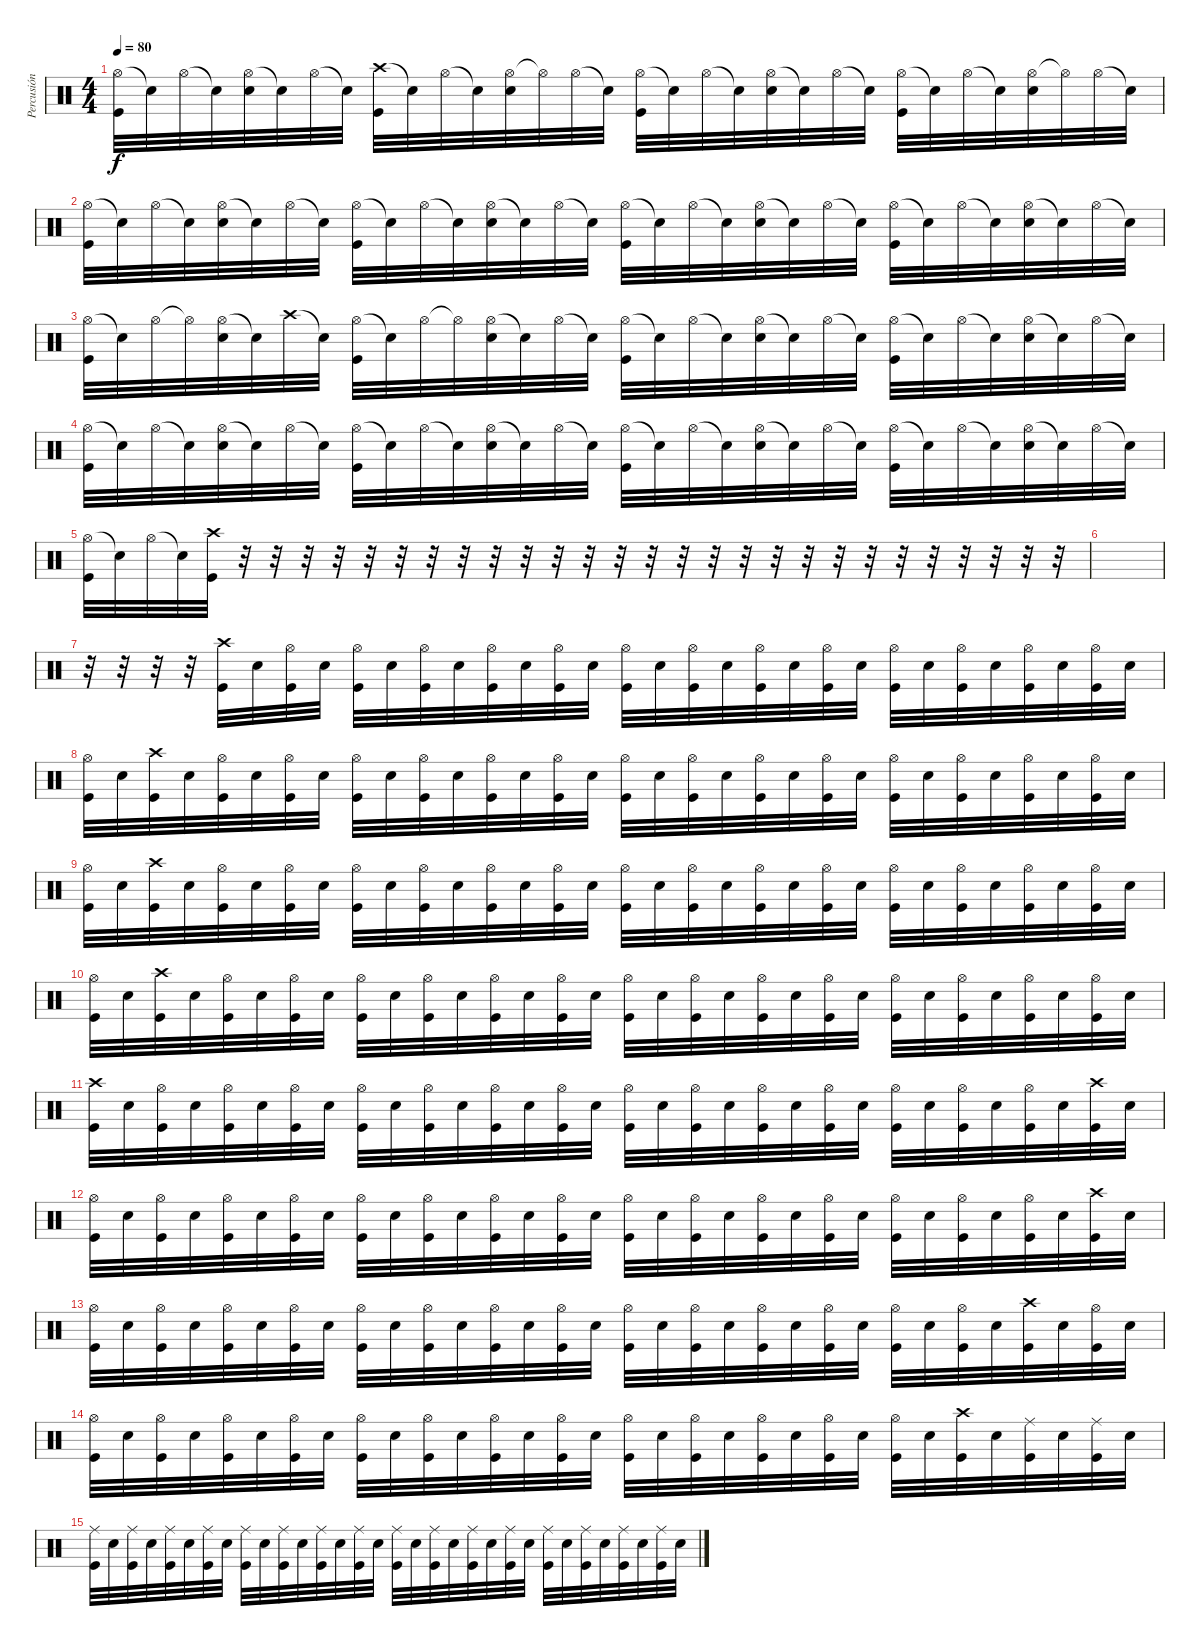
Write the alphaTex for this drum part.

\track ("Percusión" "Percusión") {instrument percussion}
\staff {score}
\articulation defaults
\ts (4 4)
\tempo 80
\clef neutral
\ks c
("Hi-Hat (open)" "Kick (hit)").32{dy f} "Snare (hit)"{t}.32 "Hi-Hat (open)".32 "Snare (hit)"{t}.32 ("Hi-Hat (open)" "Electric Snare (hit)").32 "Snare (hit)"{t}.32 "Hi-Hat (open)".32 "Snare (hit)"{t}.32 ("Crash high (hit)" "Kick (hit)").32 "Snare (hit)"{t}.32 "Hi-Hat (open)".32 "Snare (hit)"{t}.32 ("Hi-Hat (open)" "Electric Snare (hit)").32 "Hi-Hat (open)"{t}.32 "Hi-Hat (open)".32 "Snare (hit)"{t}.32 ("Hi-Hat (open)" "Kick (hit)").32 "Snare (hit)"{t}.32 "Hi-Hat (open)".32 "Snare (hit)"{t}.32 ("Hi-Hat (open)" "Electric Snare (hit)").32 "Snare (hit)"{t}.32 "Hi-Hat (open)".32 "Snare (hit)"{t}.32 ("Hi-Hat (open)" "Kick (hit)").32 "Snare (hit)"{t}.32 "Hi-Hat (open)".32 "Snare (hit)"{t}.32 ("Hi-Hat (open)" "Electric Snare (hit)").32 "Hi-Hat (open)"{t}.32 "Hi-Hat (open)".32 "Snare (hit)"{t}.32 |
("Hi-Hat (open)" "Kick (hit)").32 "Snare (hit)"{t}.32 "Hi-Hat (open)".32 "Snare (hit)"{t}.32 ("Hi-Hat (open)" "Electric Snare (hit)").32 "Snare (hit)"{t}.32 "Hi-Hat (open)".32 "Snare (hit)"{t}.32 ("Hi-Hat (open)" "Kick (hit)").32 "Snare (hit)"{t}.32 "Hi-Hat (open)".32 "Snare (hit)"{t}.32 ("Hi-Hat (open)" "Electric Snare (hit)").32 "Snare (hit)"{t}.32 "Hi-Hat (open)".32 "Snare (hit)"{t}.32 ("Hi-Hat (open)" "Kick (hit)").32 "Snare (hit)"{t}.32 "Hi-Hat (open)".32 "Snare (hit)"{t}.32 ("Hi-Hat (open)" "Electric Snare (hit)").32 "Snare (hit)"{t}.32 "Hi-Hat (open)".32 "Snare (hit)"{t}.32 ("Hi-Hat (open)" "Kick (hit)").32 "Snare (hit)"{t}.32 "Hi-Hat (open)".32 "Snare (hit)"{t}.32 ("Hi-Hat (open)" "Electric Snare (hit)").32 "Snare (hit)"{t}.32 "Hi-Hat (open)".32 "Snare (hit)"{t}.32 |
("Hi-Hat (open)" "Kick (hit)").32 "Snare (hit)"{t}.32 "Hi-Hat (open)".32 "Hi-Hat (open)"{t}.32 ("Hi-Hat (open)" "Electric Snare (hit)").32 "Snare (hit)"{t}.32 "Crash high (hit)".32 "Snare (hit)"{t}.32 ("Hi-Hat (open)" "Kick (hit)").32 "Snare (hit)"{t}.32 "Hi-Hat (open)".32 "Hi-Hat (open)"{t}.32 ("Hi-Hat (open)" "Electric Snare (hit)").32 "Snare (hit)"{t}.32 "Hi-Hat (open)".32 "Snare (hit)"{t}.32 ("Hi-Hat (open)" "Kick (hit)").32 "Snare (hit)"{t}.32 "Hi-Hat (open)".32 "Snare (hit)"{t}.32 ("Hi-Hat (open)" "Electric Snare (hit)").32 "Snare (hit)"{t}.32 "Hi-Hat (open)".32 "Snare (hit)"{t}.32 ("Hi-Hat (open)" "Kick (hit)").32 "Snare (hit)"{t}.32 "Hi-Hat (open)".32 "Snare (hit)"{t}.32 ("Hi-Hat (open)" "Electric Snare (hit)").32 "Snare (hit)"{t}.32 "Hi-Hat (open)".32 "Snare (hit)"{t}.32 |
("Hi-Hat (open)" "Kick (hit)").32 "Snare (hit)"{t}.32 "Hi-Hat (open)".32 "Snare (hit)"{t}.32 ("Hi-Hat (open)" "Electric Snare (hit)").32 "Snare (hit)"{t}.32 "Hi-Hat (open)".32 "Snare (hit)"{t}.32 ("Hi-Hat (open)" "Kick (hit)").32 "Snare (hit)"{t}.32 "Hi-Hat (open)".32 "Snare (hit)"{t}.32 ("Hi-Hat (open)" "Electric Snare (hit)").32 "Snare (hit)"{t}.32 "Hi-Hat (open)".32 "Snare (hit)"{t}.32 ("Hi-Hat (open)" "Kick (hit)").32 "Snare (hit)"{t}.32 "Hi-Hat (open)".32 "Snare (hit)"{t}.32 ("Hi-Hat (open)" "Electric Snare (hit)").32 "Snare (hit)"{t}.32 "Hi-Hat (open)".32 "Snare (hit)"{t}.32 ("Hi-Hat (open)" "Kick (hit)").32 "Snare (hit)"{t}.32 "Hi-Hat (open)".32 "Snare (hit)"{t}.32 ("Hi-Hat (open)" "Electric Snare (hit)").32 "Snare (hit)"{t}.32 "Hi-Hat (open)".32 "Snare (hit)"{t}.32 |
("Hi-Hat (open)" "Kick (hit)").32 "Snare (hit)"{t}.32 "Hi-Hat (open)".32 "Snare (hit)"{t}.32 ("Crash high (hit)" "Kick (hit)").32 r.32 r.32 r.32 r.32 r.32 r.32 r.32 r.32 r.32 r.32 r.32 r.32 r.32 r.32 r.32 r.32 r.32 r.32 r.32 r.32 r.32 r.32 r.32 r.32 r.32 r.32 r.32 |
|
r.32 r.32 r.32 r.32 ("Crash high (hit)" "Kick (hit)").32 "Electric Snare (hit)".32 ("Hi-Hat (open)" "Kick (hit)").32 "Electric Snare (hit)".32 ("Hi-Hat (open)" "Kick (hit)").32 "Electric Snare (hit)".32 ("Hi-Hat (open)" "Kick (hit)").32 "Electric Snare (hit)".32 ("Hi-Hat (open)" "Kick (hit)").32 "Electric Snare (hit)".32 ("Hi-Hat (open)" "Kick (hit)").32 "Electric Snare (hit)".32 ("Hi-Hat (open)" "Kick (hit)").32 "Electric Snare (hit)".32 ("Hi-Hat (open)" "Kick (hit)").32 "Electric Snare (hit)".32 ("Hi-Hat (open)" "Kick (hit)").32 "Electric Snare (hit)".32 ("Hi-Hat (open)" "Kick (hit)").32 "Electric Snare (hit)".32 ("Hi-Hat (open)" "Kick (hit)").32 "Electric Snare (hit)".32 ("Hi-Hat (open)" "Kick (hit)").32 "Electric Snare (hit)".32 ("Hi-Hat (open)" "Kick (hit)").32 "Electric Snare (hit)".32 ("Hi-Hat (open)" "Kick (hit)").32 "Electric Snare (hit)".32 |
("Hi-Hat (open)" "Kick (hit)").32 "Electric Snare (hit)".32 ("Crash high (hit)" "Kick (hit)").32 "Electric Snare (hit)".32 ("Hi-Hat (open)" "Kick (hit)").32 "Electric Snare (hit)".32 ("Hi-Hat (open)" "Kick (hit)").32 "Electric Snare (hit)".32 ("Hi-Hat (open)" "Kick (hit)").32 "Electric Snare (hit)".32 ("Hi-Hat (open)" "Kick (hit)").32 "Electric Snare (hit)".32 ("Hi-Hat (open)" "Kick (hit)").32 "Electric Snare (hit)".32 ("Hi-Hat (open)" "Kick (hit)").32 "Electric Snare (hit)".32 ("Hi-Hat (open)" "Kick (hit)").32 "Electric Snare (hit)".32 ("Hi-Hat (open)" "Kick (hit)").32 "Electric Snare (hit)".32 ("Hi-Hat (open)" "Kick (hit)").32 "Electric Snare (hit)".32 ("Hi-Hat (open)" "Kick (hit)").32 "Electric Snare (hit)".32 ("Hi-Hat (open)" "Kick (hit)").32 "Electric Snare (hit)".32 ("Hi-Hat (open)" "Kick (hit)").32 "Electric Snare (hit)".32 ("Hi-Hat (open)" "Kick (hit)").32 "Electric Snare (hit)".32 ("Hi-Hat (open)" "Kick (hit)").32 "Electric Snare (hit)".32 |
("Hi-Hat (open)" "Kick (hit)").32 "Electric Snare (hit)".32 ("Crash high (hit)" "Kick (hit)").32 "Electric Snare (hit)".32 ("Hi-Hat (open)" "Kick (hit)").32 "Electric Snare (hit)".32 ("Hi-Hat (open)" "Kick (hit)").32 "Electric Snare (hit)".32 ("Hi-Hat (open)" "Kick (hit)").32 "Electric Snare (hit)".32 ("Hi-Hat (open)" "Kick (hit)").32 "Electric Snare (hit)".32 ("Hi-Hat (open)" "Kick (hit)").32 "Electric Snare (hit)".32 ("Hi-Hat (open)" "Kick (hit)").32 "Electric Snare (hit)".32 ("Hi-Hat (open)" "Kick (hit)").32 "Electric Snare (hit)".32 ("Hi-Hat (open)" "Kick (hit)").32 "Electric Snare (hit)".32 ("Hi-Hat (open)" "Kick (hit)").32 "Electric Snare (hit)".32 ("Hi-Hat (open)" "Kick (hit)").32 "Electric Snare (hit)".32 ("Hi-Hat (open)" "Kick (hit)").32 "Electric Snare (hit)".32 ("Hi-Hat (open)" "Kick (hit)").32 "Electric Snare (hit)".32 ("Hi-Hat (open)" "Kick (hit)").32 "Electric Snare (hit)".32 ("Hi-Hat (open)" "Kick (hit)").32 "Electric Snare (hit)".32 |
("Hi-Hat (open)" "Kick (hit)").32 "Electric Snare (hit)".32 ("Crash high (hit)" "Kick (hit)").32 "Electric Snare (hit)".32 ("Hi-Hat (open)" "Kick (hit)").32 "Electric Snare (hit)".32 ("Hi-Hat (open)" "Kick (hit)").32 "Electric Snare (hit)".32 ("Hi-Hat (open)" "Kick (hit)").32 "Electric Snare (hit)".32 ("Hi-Hat (open)" "Kick (hit)").32 "Electric Snare (hit)".32 ("Hi-Hat (open)" "Kick (hit)").32 "Electric Snare (hit)".32 ("Hi-Hat (open)" "Kick (hit)").32 "Electric Snare (hit)".32 ("Hi-Hat (open)" "Kick (hit)").32 "Electric Snare (hit)".32 ("Hi-Hat (open)" "Kick (hit)").32 "Electric Snare (hit)".32 ("Hi-Hat (open)" "Kick (hit)").32 "Electric Snare (hit)".32 ("Hi-Hat (open)" "Kick (hit)").32 "Electric Snare (hit)".32 ("Hi-Hat (open)" "Kick (hit)").32 "Electric Snare (hit)".32 ("Hi-Hat (open)" "Kick (hit)").32 "Electric Snare (hit)".32 ("Hi-Hat (open)" "Kick (hit)").32 "Electric Snare (hit)".32 ("Hi-Hat (open)" "Kick (hit)").32 "Electric Snare (hit)".32 |
("Crash high (hit)" "Kick (hit)").32 "Electric Snare (hit)".32 ("Hi-Hat (open)" "Kick (hit)").32 "Electric Snare (hit)".32 ("Hi-Hat (open)" "Kick (hit)").32 "Electric Snare (hit)".32 ("Hi-Hat (open)" "Kick (hit)").32 "Electric Snare (hit)".32 ("Hi-Hat (open)" "Kick (hit)").32 "Electric Snare (hit)".32 ("Hi-Hat (open)" "Kick (hit)").32 "Electric Snare (hit)".32 ("Hi-Hat (open)" "Kick (hit)").32 "Electric Snare (hit)".32 ("Hi-Hat (open)" "Kick (hit)").32 "Electric Snare (hit)".32 ("Hi-Hat (open)" "Kick (hit)").32 "Electric Snare (hit)".32 ("Hi-Hat (open)" "Kick (hit)").32 "Electric Snare (hit)".32 ("Hi-Hat (open)" "Kick (hit)").32 "Electric Snare (hit)".32 ("Hi-Hat (open)" "Kick (hit)").32 "Electric Snare (hit)".32 ("Hi-Hat (open)" "Kick (hit)").32 "Electric Snare (hit)".32 ("Hi-Hat (open)" "Kick (hit)").32 "Electric Snare (hit)".32 ("Hi-Hat (open)" "Kick (hit)").32 "Electric Snare (hit)".32 ("Crash high (hit)" "Kick (hit)").32 "Electric Snare (hit)".32 |
("Hi-Hat (open)" "Kick (hit)").32 "Electric Snare (hit)".32 ("Hi-Hat (open)" "Kick (hit)").32 "Electric Snare (hit)".32 ("Hi-Hat (open)" "Kick (hit)").32 "Electric Snare (hit)".32 ("Hi-Hat (open)" "Kick (hit)").32 "Electric Snare (hit)".32 ("Hi-Hat (open)" "Kick (hit)").32 "Electric Snare (hit)".32 ("Hi-Hat (open)" "Kick (hit)").32 "Electric Snare (hit)".32 ("Hi-Hat (open)" "Kick (hit)").32 "Electric Snare (hit)".32 ("Hi-Hat (open)" "Kick (hit)").32 "Electric Snare (hit)".32 ("Hi-Hat (open)" "Kick (hit)").32 "Electric Snare (hit)".32 ("Hi-Hat (open)" "Kick (hit)").32 "Electric Snare (hit)".32 ("Hi-Hat (open)" "Kick (hit)").32 "Electric Snare (hit)".32 ("Hi-Hat (open)" "Kick (hit)").32 "Electric Snare (hit)".32 ("Hi-Hat (open)" "Kick (hit)").32 "Electric Snare (hit)".32 ("Hi-Hat (open)" "Kick (hit)").32 "Electric Snare (hit)".32 ("Hi-Hat (open)" "Kick (hit)").32 "Electric Snare (hit)".32 ("Crash high (hit)" "Kick (hit)").32 "Electric Snare (hit)".32 |
("Hi-Hat (open)" "Kick (hit)").32 "Electric Snare (hit)".32 ("Hi-Hat (open)" "Kick (hit)").32 "Electric Snare (hit)".32 ("Hi-Hat (open)" "Kick (hit)").32 "Electric Snare (hit)".32 ("Hi-Hat (open)" "Kick (hit)").32 "Electric Snare (hit)".32 ("Hi-Hat (open)" "Kick (hit)").32 "Electric Snare (hit)".32 ("Hi-Hat (open)" "Kick (hit)").32 "Electric Snare (hit)".32 ("Hi-Hat (open)" "Kick (hit)").32 "Electric Snare (hit)".32 ("Hi-Hat (open)" "Kick (hit)").32 "Electric Snare (hit)".32 ("Hi-Hat (open)" "Kick (hit)").32 "Electric Snare (hit)".32 ("Hi-Hat (open)" "Kick (hit)").32 "Electric Snare (hit)".32 ("Hi-Hat (open)" "Kick (hit)").32 "Electric Snare (hit)".32 ("Hi-Hat (open)" "Kick (hit)").32 "Electric Snare (hit)".32 ("Hi-Hat (open)" "Kick (hit)").32 "Electric Snare (hit)".32 ("Hi-Hat (open)" "Kick (hit)").32 "Electric Snare (hit)".32 ("Crash high (hit)" "Kick (hit)").32 "Electric Snare (hit)".32 ("Hi-Hat (open)" "Kick (hit)").32 "Electric Snare (hit)".32 |
("Hi-Hat (open)" "Kick (hit)").32 "Electric Snare (hit)".32 ("Hi-Hat (open)" "Kick (hit)").32 "Electric Snare (hit)".32 ("Hi-Hat (open)" "Kick (hit)").32 "Electric Snare (hit)".32 ("Hi-Hat (open)" "Kick (hit)").32 "Electric Snare (hit)".32 ("Hi-Hat (open)" "Kick (hit)").32 "Electric Snare (hit)".32 ("Hi-Hat (open)" "Kick (hit)").32 "Electric Snare (hit)".32 ("Hi-Hat (open)" "Kick (hit)").32 "Electric Snare (hit)".32 ("Hi-Hat (open)" "Kick (hit)").32 "Electric Snare (hit)".32 ("Hi-Hat (open)" "Kick (hit)").32 "Electric Snare (hit)".32 ("Hi-Hat (open)" "Kick (hit)").32 "Electric Snare (hit)".32 ("Hi-Hat (open)" "Kick (hit)").32 "Electric Snare (hit)".32 ("Hi-Hat (open)" "Kick (hit)").32 "Electric Snare (hit)".32 ("Hi-Hat (open)" "Kick (hit)").32 "Electric Snare (hit)".32 ("Crash high (hit)" "Kick (hit)").32 "Electric Snare (hit)".32 ("Ride (middle)" "Kick (hit)").32 "Electric Snare (hit)".32 ("Ride (middle)" "Kick (hit)").32 "Electric Snare (hit)".32 |
("Ride (middle)" "Kick (hit)").32 "Electric Snare (hit)".32 ("Ride (middle)" "Kick (hit)").32 "Electric Snare (hit)".32 ("Ride (middle)" "Kick (hit)").32 "Electric Snare (hit)".32 ("Ride (middle)" "Kick (hit)").32 "Electric Snare (hit)".32 ("Ride (middle)" "Kick (hit)").32 "Electric Snare (hit)".32 ("Ride (middle)" "Kick (hit)").32 "Electric Snare (hit)".32 ("Ride (middle)" "Kick (hit)").32 "Electric Snare (hit)".32 ("Ride (middle)" "Kick (hit)").32 "Electric Snare (hit)".32 ("Ride (middle)" "Kick (hit)").32 "Electric Snare (hit)".32 ("Ride (middle)" "Kick (hit)").32 "Electric Snare (hit)".32 ("Ride (middle)" "Kick (hit)").32 "Electric Snare (hit)".32 ("Ride (middle)" "Kick (hit)").32 "Electric Snare (hit)".32 ("Ride (middle)" "Kick (hit)").32 "Electric Snare (hit)".32 ("Ride (middle)" "Kick (hit)").32 "Electric Snare (hit)".32 ("Ride (middle)" "Kick (hit)").32 "Electric Snare (hit)".32 ("Ride (middle)" "Kick (hit)").32 "Electric Snare (hit)".32
